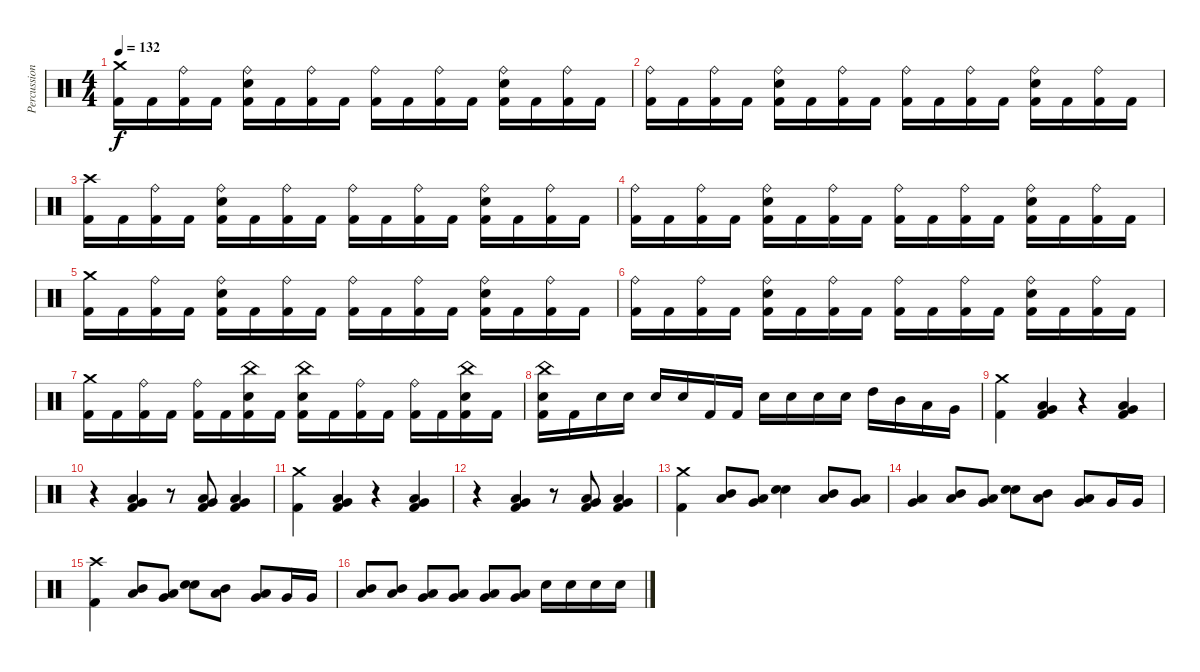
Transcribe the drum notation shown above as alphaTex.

\track ("Percussion" "Percussion") {instrument percussion}
\staff {score}
\articulation defaults
\ts (4 4)
\tempo 132
\clef neutral
\ks c
("Crash medium (hit)" "Kick (hit) 2").16{dy f} "Kick (hit) 2".16 ("Ride (bell)" "Kick (hit) 2").16 "Kick (hit) 2".16 ("Snare (hit) 2" "Ride (bell)" "Kick (hit) 2").16 "Kick (hit) 2".16 ("Ride (bell)" "Kick (hit) 2").16 "Kick (hit) 2".16 ("Ride (bell)" "Kick (hit) 2").16 "Kick (hit) 2".16 ("Ride (bell)" "Kick (hit) 2").16 "Kick (hit) 2".16 ("Snare (hit) 2" "Ride (bell)" "Kick (hit) 2").16 "Kick (hit) 2".16 ("Ride (bell)" "Kick (hit) 2").16 "Kick (hit) 2".16 |
("Ride (bell)" "Kick (hit) 2").16 "Kick (hit) 2".16 ("Ride (bell)" "Kick (hit) 2").16 "Kick (hit) 2".16 ("Snare (hit) 2" "Ride (bell)" "Kick (hit) 2").16 "Kick (hit) 2".16 ("Ride (bell)" "Kick (hit) 2").16 "Kick (hit) 2".16 ("Ride (bell)" "Kick (hit) 2").16 "Kick (hit) 2".16 ("Ride (bell)" "Kick (hit) 2").16 "Kick (hit) 2".16 ("Snare (hit) 2" "Ride (bell)" "Kick (hit) 2").16 "Kick (hit) 2".16 ("Ride (bell)" "Kick (hit) 2").16 "Kick (hit) 2".16 |
("Crash high (hit)" "Kick (hit) 2").16 "Kick (hit) 2".16 ("Ride (bell)" "Kick (hit) 2").16 "Kick (hit) 2".16 ("Snare (hit) 2" "Ride (bell)" "Kick (hit) 2").16 "Kick (hit) 2".16 ("Ride (bell)" "Kick (hit) 2").16 "Kick (hit) 2".16 ("Ride (bell)" "Kick (hit) 2").16 "Kick (hit) 2".16 ("Ride (bell)" "Kick (hit) 2").16 "Kick (hit) 2".16 ("Snare (hit) 2" "Ride (bell)" "Kick (hit) 2").16 "Kick (hit) 2".16 ("Ride (bell)" "Kick (hit) 2").16 "Kick (hit) 2".16 |
("Ride (bell)" "Kick (hit) 2").16 "Kick (hit) 2".16 ("Ride (bell)" "Kick (hit) 2").16 "Kick (hit) 2".16 ("Snare (hit) 2" "Ride (bell)" "Kick (hit) 2").16 "Kick (hit) 2".16 ("Ride (bell)" "Kick (hit) 2").16 "Kick (hit) 2".16 ("Ride (bell)" "Kick (hit) 2").16 "Kick (hit) 2".16 ("Ride (bell)" "Kick (hit) 2").16 "Kick (hit) 2".16 ("Snare (hit) 2" "Ride (bell)" "Kick (hit) 2").16 "Kick (hit) 2".16 ("Ride (bell)" "Kick (hit) 2").16 "Kick (hit) 2".16 |
("Crash medium (hit)" "Kick (hit) 2").16 "Kick (hit) 2".16 ("Ride (bell)" "Kick (hit) 2").16 "Kick (hit) 2".16 ("Snare (hit) 2" "Ride (bell)" "Kick (hit) 2").16 "Kick (hit) 2".16 ("Ride (bell)" "Kick (hit) 2").16 "Kick (hit) 2".16 ("Ride (bell)" "Kick (hit) 2").16 "Kick (hit) 2".16 ("Ride (bell)" "Kick (hit) 2").16 "Kick (hit) 2".16 ("Snare (hit) 2" "Ride (bell)" "Kick (hit) 2").16 "Kick (hit) 2".16 ("Ride (bell)" "Kick (hit) 2").16 "Kick (hit) 2".16 |
("Ride (bell)" "Kick (hit) 2").16 "Kick (hit) 2".16 ("Ride (bell)" "Kick (hit) 2").16 "Kick (hit) 2".16 ("Snare (hit) 2" "Ride (bell)" "Kick (hit) 2").16 "Kick (hit) 2".16 ("Ride (bell)" "Kick (hit) 2").16 "Kick (hit) 2".16 ("Ride (bell)" "Kick (hit) 2").16 "Kick (hit) 2".16 ("Ride (bell)" "Kick (hit) 2").16 "Kick (hit) 2".16 ("Snare (hit) 2" "Ride (bell)" "Kick (hit) 2").16 "Kick (hit) 2".16 ("Ride (bell)" "Kick (hit) 2").16 "Kick (hit) 2".16 |
("Crash medium (hit)" "Kick (hit) 2").16 "Kick (hit) 2".16 ("Ride (bell)" "Kick (hit) 2").16 "Kick (hit) 2".16 ("Ride (bell)" "Kick (hit) 2").16 "Kick (hit) 2".16 ("Snare (hit) 2" "China (hit)" "Kick (hit) 2").16 "Kick (hit) 2".16 ("Snare (hit) 2" "China (hit)" "Kick (hit) 2").16 "Kick (hit) 2".16 ("Ride (bell)" "Kick (hit) 2").16 "Kick (hit) 2".16 ("Ride (bell)" "Kick (hit) 2").16 "Kick (hit) 2".16 ("Snare (hit) 2" "China (hit)" "Kick (hit) 2").16 "Kick (hit) 2".16 |
("Snare (hit) 2" "China (hit)" "Kick (hit) 2").16 "Kick (hit) 2".16 "Snare (hit) 2".16 "Snare (hit) 2".16 "Snare (hit) 2".16 "Snare (hit) 2".16 "Kick (hit) 2".16 "Kick (hit) 2".16 "Snare (hit) 2".16 "Snare (hit) 2".16 "Snare (hit) 2".16 "Snare (hit) 2".16 "High Tom (hit)".16 "Mid Tom (hit)".16 "Low Tom (hit)".16 "Very Low Tom (hit)".16 |
("Kick (hit) 2" "Crash medium (hit)").4 ("Kick (hit) 2" "Low Tom (hit)" "Very Low Tom (hit)").4 r.4 ("Kick (hit) 2" "Low Tom (hit)" "Very Low Tom (hit)").4 |
r.4 ("Kick (hit) 2" "Low Tom (hit)" "Very Low Tom (hit)").4 r.8 ("Kick (hit) 2" "Low Tom (hit)" "Very Low Tom (hit)").8 ("Kick (hit) 2" "Low Tom (hit)" "Very Low Tom (hit)").4 |
("Kick (hit) 2" "Crash medium (hit)").4 ("Kick (hit) 2" "Low Tom (hit)" "Very Low Tom (hit)").4 r.4 ("Kick (hit) 2" "Low Tom (hit)" "Very Low Tom (hit)").4 |
r.4 ("Kick (hit) 2" "Low Tom (hit)" "Very Low Tom (hit)").4 r.8 ("Kick (hit) 2" "Low Tom (hit)" "Very Low Tom (hit)").8 ("Kick (hit) 2" "Low Tom (hit)" "Very Low Tom (hit)").4 |
("Kick (hit) 2" "Crash medium (hit)").4 ("Mid Tom (hit)" "Low Tom (hit)").8 ("Very Low Tom (hit)" "Low Tom (hit)").8 ("Snare (hit) 2" "Snare (hit) 2").4 ("Mid Tom (hit)" "Low Tom (hit)").8 ("Very Low Tom (hit)" "Low Tom (hit)").8 |
("Low Floor Tom (hit)" "Very Low Tom (hit)").4 ("Mid Tom (hit)" "Low Tom (hit)").8 ("Very Low Tom (hit)" "Low Tom (hit)").8 ("Snare (hit) 2" "Snare (hit) 2").8 ("Low Tom (hit)" "Mid Tom (hit)").8 ("Very Low Tom (hit)" "Low Tom (hit)").8 "Very Low Tom (hit)".16 "Very Low Tom (hit)".16 |
("Kick (hit) 2" "Crash high (hit)").4 ("Mid Tom (hit)" "Low Tom (hit)").8 ("Very Low Tom (hit)" "Low Tom (hit)").8 ("Snare (hit) 2" "Snare (hit) 2").8 ("Low Tom (hit)" "Mid Tom (hit)").8 ("Very Low Tom (hit)" "Low Tom (hit)").8 "Very Low Tom (hit)".16 "Very Low Tom (hit)".16 |
("Mid Tom (hit)" "Low Tom (hit)").8 ("Mid Tom (hit)" "Low Tom (hit)").8 ("Very Low Tom (hit)" "Low Tom (hit)").8 ("Very Low Tom (hit)" "Low Tom (hit)").8 ("Very Low Tom (hit)" "Low Floor Tom (hit)").8 ("Very Low Tom (hit)" "Low Floor Tom (hit)").8 "Snare (hit) 2".16 "Snare (hit) 2".16 "Snare (hit) 2".16 "Snare (hit) 2".16
